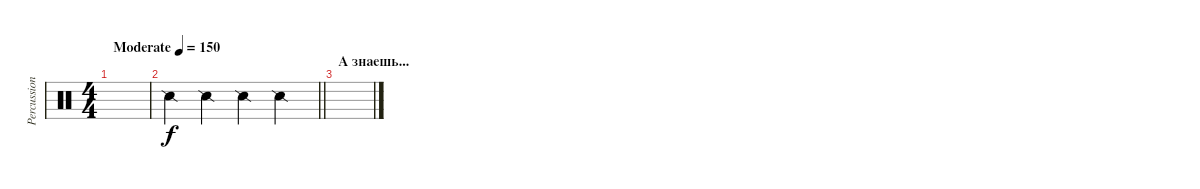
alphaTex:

\track ("Percussion" "Percussion") {instrument percussion bank 3}
\staff {score}
\articulation defaults
\ts (4 4)
\tempo (150 "Moderate")
\clef neutral
\ks c
|
\barLineRight lightlight "Snare (side stick) 2".4 "Snare (side stick) 2".4 "Snare (side stick) 2".4 "Snare (side stick) 2".4
|
\section ("" "А знаешь...")
